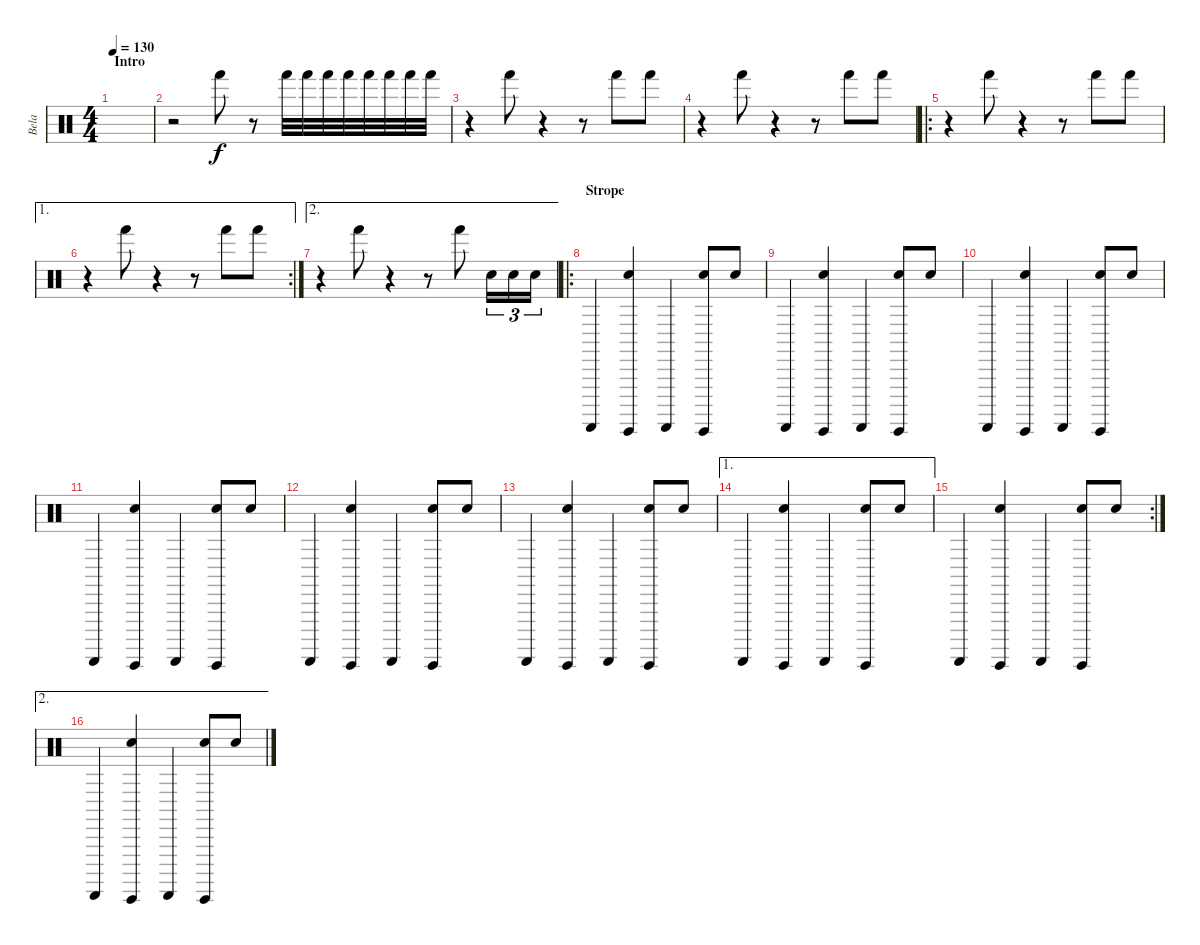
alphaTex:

\track ("Bela" "Bela") {instrument percussion}
\staff {score}
\articulation defaults
\ts (4 4)
\section ("" "Intro")
\tempo 130
\clef neutral
\ks c
|
r.2 "Hand (hit)".8 r.8 "Hand (hit)".32 "Hand (hit)".32 "Hand (hit)".32 "Hand (hit)".32 "Hand (hit)".32 "Hand (hit)".32 "Hand (hit)".32 "Hand (hit)".32 |
r.4 "Hand (hit)".8 r.4 r.8 "Hand (hit)".8 "Hand (hit)".8 |
r.4 "Hand (hit)".8 r.4 r.8 "Hand (hit)".8 "Hand (hit)".8 |
\ro
r.4 "Hand (hit)".8 r.4 r.8 "Hand (hit)".8 "Hand (hit)".8 |
\ae 1
\rc 2
r.4 "Hand (hit)".8 r.4 r.8 "Hand (hit)".8 "Hand (hit)".8 |
\ae 2
r.4 "Hand (hit)".8 r.4 r.8 "Hand (hit)".8 "Electric Snare (hit)".16{tu (3 2)} "Electric Snare (hit)".16{tu (3 2)} "Electric Snare (hit)".16{tu (3 2)} |
\ro
\section ("" "Strope")
"Guiro (scrap-return)".4 ("Guiro (hit)" "Electric Snare (hit)").4 "Guiro (scrap-return)".4 ("Guiro (hit)" "Electric Snare (hit)").8 "Electric Snare (hit)".8 |
"Guiro (scrap-return)".4 ("Guiro (hit)" "Electric Snare (hit)").4 "Guiro (scrap-return)".4 ("Guiro (hit)" "Electric Snare (hit)").8 "Electric Snare (hit)".8 |
"Guiro (scrap-return)".4 ("Guiro (hit)" "Electric Snare (hit)").4 "Guiro (scrap-return)".4 ("Guiro (hit)" "Electric Snare (hit)").8 "Electric Snare (hit)".8 |
"Guiro (scrap-return)".4 ("Guiro (hit)" "Electric Snare (hit)").4 "Guiro (scrap-return)".4 ("Guiro (hit)" "Electric Snare (hit)").8 "Electric Snare (hit)".8 |
"Guiro (scrap-return)".4 ("Guiro (hit)" "Electric Snare (hit)").4 "Guiro (scrap-return)".4 ("Guiro (hit)" "Electric Snare (hit)").8 "Electric Snare (hit)".8 |
"Guiro (scrap-return)".4 ("Guiro (hit)" "Electric Snare (hit)").4 "Guiro (scrap-return)".4 ("Guiro (hit)" "Electric Snare (hit)").8 "Electric Snare (hit)".8 |
\ae 1 "Guiro (scrap-return)".4
("Guiro (hit)" "Electric Snare (hit)").4 "Guiro (scrap-return)".4 ("Guiro (hit)" "Electric Snare (hit)").8 "Electric Snare (hit)".8 |
\rc 2 "Guiro (scrap-return)".4
("Guiro (hit)" "Electric Snare (hit)").4 "Guiro (scrap-return)".4 ("Guiro (hit)" "Electric Snare (hit)").8 "Electric Snare (hit)".8 |
\ae 2 "Guiro (scrap-return)".4
("Guiro (hit)" "Electric Snare (hit)").4 "Guiro (scrap-return)".4 ("Guiro (hit)" "Electric Snare (hit)").8 "Electric Snare (hit)".8
